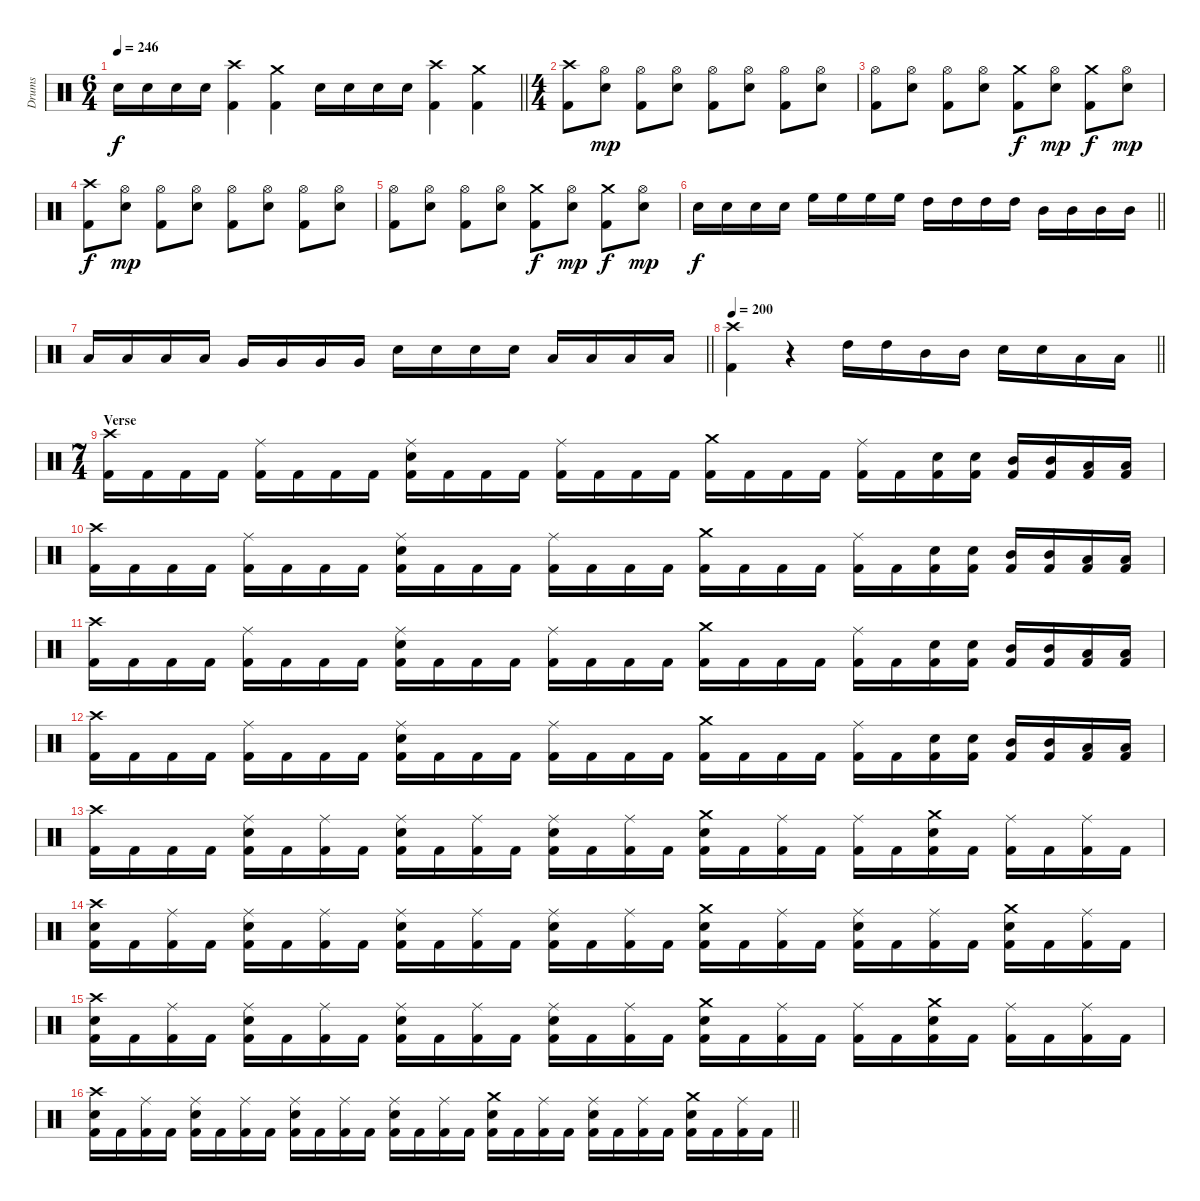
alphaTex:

\track ("Drums" "Drums") {instrument percussion}
\staff {score}
\articulation defaults
\ts (6 4)
\tempo 246
\clef neutral
\barLineRight lightlight
\ks c "Snare (hit) 2".16{dy f} "Snare (hit) 2".16 "Snare (hit) 2".16 "Snare (hit) 2".16
("Crash high (hit)" "Kick (hit) 2").4 ("Crash medium (hit)" "Kick (hit) 2").4 "Snare (hit) 2".16 "Snare (hit) 2".16 "Snare (hit) 2".16 "Snare (hit) 2".16 ("Crash high (hit)" "Kick (hit) 2").4 ("Crash medium (hit)" "Kick (hit) 2").4 |
\ts (4 4)
\section ("" "")
("Crash high (hit)" "Kick (hit) 2").8 ("Hi-Hat (open)" "Snare (hit) 2").8{dy mp} ("Hi-Hat (open)" "Kick (hit) 2").8 ("Hi-Hat (open)" "Snare (hit) 2").8 ("Hi-Hat (open)" "Kick (hit) 2").8 ("Hi-Hat (open)" "Snare (hit) 2").8 ("Hi-Hat (open)" "Kick (hit) 2").8 ("Hi-Hat (open)" "Snare (hit) 2").8 |
("Hi-Hat (open)" "Kick (hit) 2").8 ("Hi-Hat (open)" "Snare (hit) 2").8 ("Hi-Hat (open)" "Kick (hit) 2").8 ("Hi-Hat (open)" "Snare (hit) 2").8 ("Crash medium (hit)" "Kick (hit) 2").8{dy f} ("Hi-Hat (open)" "Snare (hit) 2").8{dy mp} ("Crash medium (hit)" "Kick (hit) 2").8{dy f} ("Hi-Hat (open)" "Snare (hit) 2").8{dy mp} |
("Crash high (hit)" "Kick (hit) 2").8{dy f} ("Hi-Hat (open)" "Snare (hit) 2").8{dy mp} ("Hi-Hat (open)" "Kick (hit) 2").8 ("Hi-Hat (open)" "Snare (hit) 2").8 ("Hi-Hat (open)" "Kick (hit) 2").8 ("Hi-Hat (open)" "Snare (hit) 2").8 ("Hi-Hat (open)" "Kick (hit) 2").8 ("Hi-Hat (open)" "Snare (hit) 2").8 |
("Hi-Hat (open)" "Kick (hit) 2").8 ("Hi-Hat (open)" "Snare (hit) 2").8 ("Hi-Hat (open)" "Kick (hit) 2").8 ("Hi-Hat (open)" "Snare (hit) 2").8 ("Crash medium (hit)" "Kick (hit) 2").8{dy f} ("Hi-Hat (open)" "Snare (hit) 2").8{dy mp} ("Crash medium (hit)" "Kick (hit) 2").8{dy f} ("Hi-Hat (open)" "Snare (hit) 2").8{dy mp} |
\barLineRight lightlight "Snare (hit) 2".16{dy f} "Snare (hit) 2".16 "Snare (hit) 2".16 "Snare (hit) 2".16 "High Floor Tom (hit)".16 "High Floor Tom (hit)".16 "High Floor Tom (hit)".16 "High Floor Tom (hit)".16 "High Tom (hit)".16 "High Tom (hit)".16 "High Tom (hit)".16 "High Tom (hit)".16 "Mid Tom (hit)".16 "Mid Tom (hit)".16 "Mid Tom (hit)".16 "Mid Tom (hit)".16
|
\barLineRight lightlight "Low Tom (hit)".16 "Low Tom (hit)".16 "Low Tom (hit)".16 "Low Tom (hit)".16 "Very Low Tom (hit)".16 "Very Low Tom (hit)".16 "Very Low Tom (hit)".16 "Very Low Tom (hit)".16 "Snare (hit) 2".16 "Snare (hit) 2".16 "Snare (hit) 2".16 "Snare (hit) 2".16 "Low Floor Tom (hit)".16 "Low Floor Tom (hit)".16 "Low Floor Tom (hit)".16 "Low Floor Tom (hit)".16
|
\section ("" "")
\tempo 200
\barLineRight lightlight
("Crash high (hit)" "Kick (hit) 2").4 r.4 "High Tom (hit)".16 "High Tom (hit)".16 "Mid Tom (hit)".16 "Mid Tom (hit)".16 "Snare (hit) 2".16 "Snare (hit) 2".16 "Low Tom (hit)".16 "Low Tom (hit)".16 |
\ts (7 4)
\section ("" "Verse")
("Crash high (hit)" "Kick (hit) 2").16 "Kick (hit) 2".16 "Kick (hit) 2".16 "Kick (hit) 2".16 ("Ride (middle)" "Kick (hit) 2").16 "Kick (hit) 2".16 "Kick (hit) 2".16 "Kick (hit) 2".16 ("Ride (middle)" "Snare (hit) 2" "Kick (hit) 2").16 "Kick (hit) 2".16 "Kick (hit) 2".16 "Kick (hit) 2".16 ("Ride (middle)" "Kick (hit) 2").16 "Kick (hit) 2".16 "Kick (hit) 2".16 "Kick (hit) 2".16 ("Crash medium (hit)" "Kick (hit) 2").16 "Kick (hit) 2".16 "Kick (hit) 2".16 "Kick (hit) 2".16 ("Ride (middle)" "Kick (hit) 2").16 "Kick (hit) 2".16 ("Snare (hit) 2" "Kick (hit) 2").16 ("Snare (hit) 2" "Kick (hit) 2").16 ("Mid Tom (hit)" "Kick (hit) 2").16 ("Mid Tom (hit)" "Kick (hit) 2").16 ("Low Tom (hit)" "Kick (hit) 2").16 ("Low Tom (hit)" "Kick (hit) 2").16 |
("Crash high (hit)" "Kick (hit) 2").16 "Kick (hit) 2".16 "Kick (hit) 2".16 "Kick (hit) 2".16 ("Ride (middle)" "Kick (hit) 2").16 "Kick (hit) 2".16 "Kick (hit) 2".16 "Kick (hit) 2".16 ("Ride (middle)" "Snare (hit) 2" "Kick (hit) 2").16 "Kick (hit) 2".16 "Kick (hit) 2".16 "Kick (hit) 2".16 ("Ride (middle)" "Kick (hit) 2").16 "Kick (hit) 2".16 "Kick (hit) 2".16 "Kick (hit) 2".16 ("Crash medium (hit)" "Kick (hit) 2").16 "Kick (hit) 2".16 "Kick (hit) 2".16 "Kick (hit) 2".16 ("Ride (middle)" "Kick (hit) 2").16 "Kick (hit) 2".16 ("Snare (hit) 2" "Kick (hit) 2").16 ("Snare (hit) 2" "Kick (hit) 2").16 ("Mid Tom (hit)" "Kick (hit) 2").16 ("Mid Tom (hit)" "Kick (hit) 2").16 ("Low Tom (hit)" "Kick (hit) 2").16 ("Low Tom (hit)" "Kick (hit) 2").16 |
("Crash high (hit)" "Kick (hit) 2").16 "Kick (hit) 2".16 "Kick (hit) 2".16 "Kick (hit) 2".16 ("Ride (middle)" "Kick (hit) 2").16 "Kick (hit) 2".16 "Kick (hit) 2".16 "Kick (hit) 2".16 ("Ride (middle)" "Snare (hit) 2" "Kick (hit) 2").16 "Kick (hit) 2".16 "Kick (hit) 2".16 "Kick (hit) 2".16 ("Ride (middle)" "Kick (hit) 2").16 "Kick (hit) 2".16 "Kick (hit) 2".16 "Kick (hit) 2".16 ("Crash medium (hit)" "Kick (hit) 2").16 "Kick (hit) 2".16 "Kick (hit) 2".16 "Kick (hit) 2".16 ("Ride (middle)" "Kick (hit) 2").16 "Kick (hit) 2".16 ("Snare (hit) 2" "Kick (hit) 2").16 ("Snare (hit) 2" "Kick (hit) 2").16 ("Mid Tom (hit)" "Kick (hit) 2").16 ("Mid Tom (hit)" "Kick (hit) 2").16 ("Low Tom (hit)" "Kick (hit) 2").16 ("Low Tom (hit)" "Kick (hit) 2").16 |
("Crash high (hit)" "Kick (hit) 2").16 "Kick (hit) 2".16 "Kick (hit) 2".16 "Kick (hit) 2".16 ("Ride (middle)" "Kick (hit) 2").16 "Kick (hit) 2".16 "Kick (hit) 2".16 "Kick (hit) 2".16 ("Ride (middle)" "Snare (hit) 2" "Kick (hit) 2").16 "Kick (hit) 2".16 "Kick (hit) 2".16 "Kick (hit) 2".16 ("Ride (middle)" "Kick (hit) 2").16 "Kick (hit) 2".16 "Kick (hit) 2".16 "Kick (hit) 2".16 ("Crash medium (hit)" "Kick (hit) 2").16 "Kick (hit) 2".16 "Kick (hit) 2".16 "Kick (hit) 2".16 ("Ride (middle)" "Kick (hit) 2").16 "Kick (hit) 2".16 ("Snare (hit) 2" "Kick (hit) 2").16 ("Snare (hit) 2" "Kick (hit) 2").16 ("Mid Tom (hit)" "Kick (hit) 2").16 ("Mid Tom (hit)" "Kick (hit) 2").16 ("Low Tom (hit)" "Kick (hit) 2").16 ("Low Tom (hit)" "Kick (hit) 2").16 |
("Crash high (hit)" "Kick (hit) 2").16 "Kick (hit) 2".16 "Kick (hit) 2".16 "Kick (hit) 2".16 ("Ride (middle)" "Snare (hit) 2" "Kick (hit) 2").16 "Kick (hit) 2".16 ("Ride (middle)" "Kick (hit) 2").16 "Kick (hit) 2".16 ("Ride (middle)" "Snare (hit) 2" "Kick (hit) 2").16 "Kick (hit) 2".16 ("Ride (middle)" "Kick (hit) 2").16 "Kick (hit) 2".16 ("Ride (middle)" "Snare (hit) 2" "Kick (hit) 2").16 "Kick (hit) 2".16 ("Ride (middle)" "Kick (hit) 2").16 "Kick (hit) 2".16 ("Crash medium (hit)" "Snare (hit) 2" "Kick (hit) 2").16 "Kick (hit) 2".16 ("Ride (middle)" "Kick (hit) 2").16 "Kick (hit) 2".16 ("Ride (middle)" "Kick (hit) 2").16 "Kick (hit) 2".16 ("Crash medium (hit)" "Snare (hit) 2" "Kick (hit) 2").16 "Kick (hit) 2".16 ("Ride (middle)" "Kick (hit) 2").16 "Kick (hit) 2".16 ("Ride (middle)" "Kick (hit) 2").16 "Kick (hit) 2".16 |
("Crash high (hit)" "Snare (hit) 2" "Kick (hit) 2").16 "Kick (hit) 2".16 ("Ride (middle)" "Kick (hit) 2").16 "Kick (hit) 2".16 ("Ride (middle)" "Snare (hit) 2" "Kick (hit) 2").16 "Kick (hit) 2".16 ("Ride (middle)" "Kick (hit) 2").16 "Kick (hit) 2".16 ("Ride (middle)" "Snare (hit) 2" "Kick (hit) 2").16 "Kick (hit) 2".16 ("Ride (middle)" "Kick (hit) 2").16 "Kick (hit) 2".16 ("Ride (middle)" "Snare (hit) 2" "Kick (hit) 2").16 "Kick (hit) 2".16 ("Ride (middle)" "Kick (hit) 2").16 "Kick (hit) 2".16 ("Crash medium (hit)" "Snare (hit) 2" "Kick (hit) 2").16 "Kick (hit) 2".16 ("Ride (middle)" "Kick (hit) 2").16 "Kick (hit) 2".16 ("Ride (middle)" "Snare (hit) 2" "Kick (hit) 2").16 "Kick (hit) 2".16 ("Ride (middle)" "Kick (hit) 2").16 "Kick (hit) 2".16 ("Crash medium (hit)" "Snare (hit) 2" "Kick (hit) 2").16 "Kick (hit) 2".16 ("Ride (middle)" "Kick (hit) 2").16 "Kick (hit) 2".16 |
("Crash high (hit)" "Snare (hit) 2" "Kick (hit) 2").16 "Kick (hit) 2".16 ("Ride (middle)" "Kick (hit) 2").16 "Kick (hit) 2".16 ("Ride (middle)" "Snare (hit) 2" "Kick (hit) 2").16 "Kick (hit) 2".16 ("Ride (middle)" "Kick (hit) 2").16 "Kick (hit) 2".16 ("Ride (middle)" "Snare (hit) 2" "Kick (hit) 2").16 "Kick (hit) 2".16 ("Ride (middle)" "Kick (hit) 2").16 "Kick (hit) 2".16 ("Ride (middle)" "Snare (hit) 2" "Kick (hit) 2").16 "Kick (hit) 2".16 ("Ride (middle)" "Kick (hit) 2").16 "Kick (hit) 2".16 ("Crash medium (hit)" "Snare (hit) 2" "Kick (hit) 2").16 "Kick (hit) 2".16 ("Ride (middle)" "Kick (hit) 2").16 "Kick (hit) 2".16 ("Ride (middle)" "Kick (hit) 2").16 "Kick (hit) 2".16 ("Crash medium (hit)" "Snare (hit) 2" "Kick (hit) 2").16 "Kick (hit) 2".16 ("Ride (middle)" "Kick (hit) 2").16 "Kick (hit) 2".16 ("Ride (middle)" "Kick (hit) 2").16 "Kick (hit) 2".16 |
\barLineRight lightlight
("Crash high (hit)" "Snare (hit) 2" "Kick (hit) 2").16 "Kick (hit) 2".16 ("Ride (middle)" "Kick (hit) 2").16 "Kick (hit) 2".16 ("Ride (middle)" "Snare (hit) 2" "Kick (hit) 2").16 "Kick (hit) 2".16 ("Ride (middle)" "Kick (hit) 2").16 "Kick (hit) 2".16 ("Ride (middle)" "Snare (hit) 2" "Kick (hit) 2").16 "Kick (hit) 2".16 ("Ride (middle)" "Kick (hit) 2").16 "Kick (hit) 2".16 ("Ride (middle)" "Snare (hit) 2" "Kick (hit) 2").16 "Kick (hit) 2".16 ("Ride (middle)" "Kick (hit) 2").16 "Kick (hit) 2".16 ("Crash medium (hit)" "Snare (hit) 2" "Kick (hit) 2").16 "Kick (hit) 2".16 ("Ride (middle)" "Kick (hit) 2").16 "Kick (hit) 2".16 ("Ride (middle)" "Snare (hit) 2" "Kick (hit) 2").16 "Kick (hit) 2".16 ("Ride (middle)" "Kick (hit) 2").16 "Kick (hit) 2".16 ("Crash medium (hit)" "Snare (hit) 2" "Kick (hit) 2").16 "Kick (hit) 2".16 ("Ride (middle)" "Kick (hit) 2").16 "Kick (hit) 2".16
